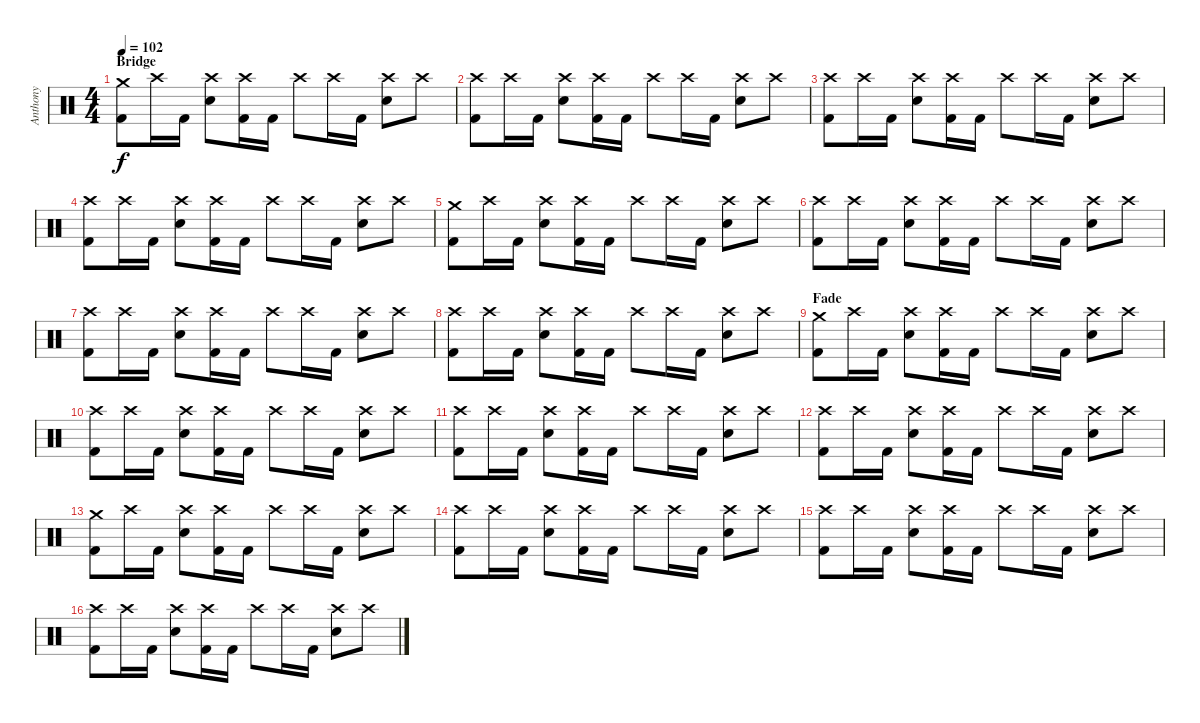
\track ("Anthony" "Anthony") {instrument percussion}
\staff {score}
\articulation defaults
\ts (4 4)
\section ("" "Bridge")
\tempo 102
\clef neutral
\ks c
("Crash medium (hit)" "Kick (hit) 2").8{dy f} "Crash high (hit)".16 "Kick (hit) 2".16 ("Crash high (hit)" "Electric Snare (hit)").8 ("Crash high (hit)" "Kick (hit) 2").16 "Kick (hit) 2".16 "Crash high (hit)".8 "Crash high (hit)".16 "Kick (hit) 2".16 ("Crash high (hit)" "Electric Snare (hit)").8 "Crash high (hit)".8 |
("Crash high (hit)" "Kick (hit) 2").8 "Crash high (hit)".16 "Kick (hit) 2".16 ("Crash high (hit)" "Electric Snare (hit)").8 ("Crash high (hit)" "Kick (hit) 2").16 "Kick (hit) 2".16 "Crash high (hit)".8 "Crash high (hit)".16 "Kick (hit) 2".16 ("Crash high (hit)" "Electric Snare (hit)").8 "Crash high (hit)".8 |
("Crash high (hit)" "Kick (hit) 2").8 "Crash high (hit)".16 "Kick (hit) 2".16 ("Crash high (hit)" "Electric Snare (hit)").8 ("Crash high (hit)" "Kick (hit) 2").16 "Kick (hit) 2".16 "Crash high (hit)".8 "Crash high (hit)".16 "Kick (hit) 2".16 ("Crash high (hit)" "Electric Snare (hit)").8 "Crash high (hit)".8 |
("Crash high (hit)" "Kick (hit) 2").8 "Crash high (hit)".16 "Kick (hit) 2".16 ("Crash high (hit)" "Electric Snare (hit)").8 ("Crash high (hit)" "Kick (hit) 2").16 "Kick (hit) 2".16 "Crash high (hit)".8 "Crash high (hit)".16 "Kick (hit) 2".16 ("Crash high (hit)" "Electric Snare (hit)").8 "Crash high (hit)".8 |
("Crash medium (hit)" "Kick (hit) 2").8 "Crash high (hit)".16 "Kick (hit) 2".16 ("Crash high (hit)" "Electric Snare (hit)").8 ("Crash high (hit)" "Kick (hit) 2").16 "Kick (hit) 2".16 "Crash high (hit)".8 "Crash high (hit)".16 "Kick (hit) 2".16 ("Crash high (hit)" "Electric Snare (hit)").8 "Crash high (hit)".8 |
("Crash high (hit)" "Kick (hit) 2").8 "Crash high (hit)".16 "Kick (hit) 2".16 ("Crash high (hit)" "Electric Snare (hit)").8 ("Crash high (hit)" "Kick (hit) 2").16 "Kick (hit) 2".16 "Crash high (hit)".8 "Crash high (hit)".16 "Kick (hit) 2".16 ("Crash high (hit)" "Electric Snare (hit)").8 "Crash high (hit)".8 |
("Crash high (hit)" "Kick (hit) 2").8 "Crash high (hit)".16 "Kick (hit) 2".16 ("Crash high (hit)" "Electric Snare (hit)").8 ("Crash high (hit)" "Kick (hit) 2").16 "Kick (hit) 2".16 "Crash high (hit)".8 "Crash high (hit)".16 "Kick (hit) 2".16 ("Crash high (hit)" "Electric Snare (hit)").8 "Crash high (hit)".8 |
("Crash high (hit)" "Kick (hit) 2").8 "Crash high (hit)".16 "Kick (hit) 2".16 ("Crash high (hit)" "Electric Snare (hit)").8 ("Crash high (hit)" "Kick (hit) 2").16 "Kick (hit) 2".16 "Crash high (hit)".8 "Crash high (hit)".16 "Kick (hit) 2".16 ("Crash high (hit)" "Electric Snare (hit)").8 "Crash high (hit)".8 |
\section ("" "Fade")
("Crash medium (hit)" "Kick (hit) 2").8{volume 9} "Crash high (hit)".16 "Kick (hit) 2".16 ("Crash high (hit)" "Electric Snare (hit)").8 ("Crash high (hit)" "Kick (hit) 2").16 "Kick (hit) 2".16 "Crash high (hit)".8 "Crash high (hit)".16 "Kick (hit) 2".16 ("Crash high (hit)" "Electric Snare (hit)").8 "Crash high (hit)".8 |
("Crash high (hit)" "Kick (hit) 2").8 "Crash high (hit)".16 "Kick (hit) 2".16 ("Crash high (hit)" "Electric Snare (hit)").8 ("Crash high (hit)" "Kick (hit) 2").16 "Kick (hit) 2".16 "Crash high (hit)".8 "Crash high (hit)".16 "Kick (hit) 2".16 ("Crash high (hit)" "Electric Snare (hit)").8 "Crash high (hit)".8 |
("Crash high (hit)" "Kick (hit) 2").8 "Crash high (hit)".16 "Kick (hit) 2".16 ("Crash high (hit)" "Electric Snare (hit)").8 ("Crash high (hit)" "Kick (hit) 2").16 "Kick (hit) 2".16 "Crash high (hit)".8 "Crash high (hit)".16 "Kick (hit) 2".16 ("Crash high (hit)" "Electric Snare (hit)").8 "Crash high (hit)".8 |
("Crash high (hit)" "Kick (hit) 2").8 "Crash high (hit)".16 "Kick (hit) 2".16 ("Crash high (hit)" "Electric Snare (hit)").8 ("Crash high (hit)" "Kick (hit) 2").16 "Kick (hit) 2".16 "Crash high (hit)".8 "Crash high (hit)".16 "Kick (hit) 2".16 ("Crash high (hit)" "Electric Snare (hit)").8 "Crash high (hit)".8 |
("Crash medium (hit)" "Kick (hit) 2").8{volume 3} "Crash high (hit)".16 "Kick (hit) 2".16 ("Crash high (hit)" "Electric Snare (hit)").8 ("Crash high (hit)" "Kick (hit) 2").16 "Kick (hit) 2".16 "Crash high (hit)".8 "Crash high (hit)".16 "Kick (hit) 2".16 ("Crash high (hit)" "Electric Snare (hit)").8 "Crash high (hit)".8 |
("Crash high (hit)" "Kick (hit) 2").8 "Crash high (hit)".16 "Kick (hit) 2".16 ("Crash high (hit)" "Electric Snare (hit)").8 ("Crash high (hit)" "Kick (hit) 2").16 "Kick (hit) 2".16 "Crash high (hit)".8 "Crash high (hit)".16 "Kick (hit) 2".16 ("Crash high (hit)" "Electric Snare (hit)").8 "Crash high (hit)".8 |
("Crash high (hit)" "Kick (hit) 2").8 "Crash high (hit)".16 "Kick (hit) 2".16 ("Crash high (hit)" "Electric Snare (hit)").8 ("Crash high (hit)" "Kick (hit) 2").16 "Kick (hit) 2".16 "Crash high (hit)".8 "Crash high (hit)".16 "Kick (hit) 2".16 ("Crash high (hit)" "Electric Snare (hit)").8 "Crash high (hit)".8 |
("Crash high (hit)" "Kick (hit) 2").8 "Crash high (hit)".16 "Kick (hit) 2".16 ("Crash high (hit)" "Electric Snare (hit)").8 ("Crash high (hit)" "Kick (hit) 2").16 "Kick (hit) 2".16 "Crash high (hit)".8 "Crash high (hit)".16 "Kick (hit) 2".16 ("Crash high (hit)" "Electric Snare (hit)").8 "Crash high (hit)".8
